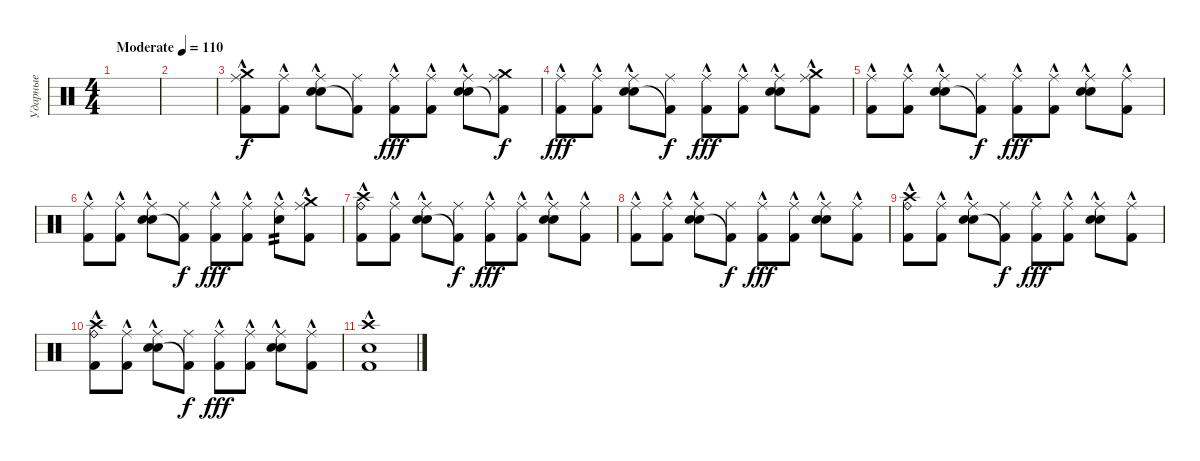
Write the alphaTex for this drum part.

\track ("Ударные" "Ударные") {instrument percussion}
\staff {score}
\articulation defaults
\ts (4 4)
\tempo (110 "Moderate")
\clef neutral
\ks c
|
|
("Kick (hit) 2"{hac} "Crash medium (hit)" "Ride (middle)").8 ("Kick (hit) 2"{hac} "Ride (middle)").8 ("Snare (hit) 2"{hac} "Electric Snare (hit)"{hac} "Ride (middle)").8 ("Kick (hit) 2"{t} "Ride (middle)").8{dy f} ("Kick (hit) 2"{hac} "Ride (middle)").8{dy fff} ("Kick (hit) 2"{hac} "Ride (middle)").8 ("Snare (hit) 2"{hac} "Electric Snare (hit)"{hac} "Ride (middle)").8 ("Kick (hit) 2"{t} "Crash medium (hit)" "Ride (middle)").8{dy f} |
("Kick (hit) 2"{hac} "Ride (middle)").8{dy fff} ("Kick (hit) 2"{hac} "Ride (middle)").8 ("Snare (hit) 2"{hac} "Electric Snare (hit)"{hac} "Ride (middle)").8 ("Kick (hit) 2"{t} "Ride (middle)").8{dy f} ("Kick (hit) 2"{hac} "Ride (middle)").8{dy fff} ("Kick (hit) 2"{hac} "Ride (middle)").8 ("Snare (hit) 2"{hac} "Electric Snare (hit)"{hac} "Ride (middle)").8 ("Kick (hit) 2"{hac} "Crash medium (hit)" "Ride (middle)").8 |
("Kick (hit) 2"{hac} "Ride (middle)").8 ("Kick (hit) 2"{hac} "Ride (middle)").8 ("Snare (hit) 2"{hac} "Electric Snare (hit)"{hac} "Ride (middle)").8 ("Kick (hit) 2"{t} "Ride (middle)").8{dy f} ("Kick (hit) 2"{hac} "Ride (middle)").8{dy fff} ("Kick (hit) 2"{hac} "Ride (middle)").8 ("Snare (hit) 2"{hac} "Electric Snare (hit)"{hac} "Ride (middle)").8 ("Kick (hit) 2"{hac} "Ride (middle)").8 |
("Kick (hit) 2"{hac} "Ride (middle)").8 ("Kick (hit) 2"{hac} "Ride (middle)").8 ("Snare (hit) 2"{hac} "Electric Snare (hit)"{hac} "Ride (middle)").8 ("Kick (hit) 2"{t} "Ride (middle)").8{dy f} ("Kick (hit) 2"{hac} "Ride (middle)").8{dy fff} ("Kick (hit) 2"{hac} "Ride (middle)").8 ("Snare (hit) 2"{hac} "Ride (middle)").8{tp 2} ("Kick (hit) 2"{hac} "Crash medium (hit)" "Ride (middle)").8 |
("Kick (hit) 2"{hac} "Crash high (hit)" "Ride (bell)").8 ("Kick (hit) 2"{hac} "Ride (middle)").8 ("Snare (hit) 2"{hac} "Electric Snare (hit)"{hac} "Ride (middle)").8 ("Kick (hit) 2"{t} "Ride (middle)").8{dy f} ("Kick (hit) 2"{hac} "Ride (middle)").8{dy fff} ("Kick (hit) 2"{hac} "Ride (middle)").8 ("Snare (hit) 2"{hac} "Electric Snare (hit)"{hac} "Ride (middle)").8 ("Kick (hit) 2"{hac} "Ride (middle)").8 |
("Kick (hit) 2"{hac} "Ride (middle)").8 ("Kick (hit) 2"{hac} "Ride (middle)").8 ("Snare (hit) 2"{hac} "Electric Snare (hit)"{hac} "Ride (middle)").8 ("Kick (hit) 2"{t} "Ride (middle)").8{dy f} ("Kick (hit) 2"{hac} "Ride (middle)").8{dy fff} ("Kick (hit) 2"{hac} "Ride (middle)").8 ("Snare (hit) 2"{hac} "Electric Snare (hit)"{hac} "Ride (middle)").8 ("Kick (hit) 2"{hac} "Ride (middle)").8 |
("Kick (hit) 2"{hac} "Crash high (hit)" "Ride (bell)").8 ("Kick (hit) 2"{hac} "Ride (middle)").8 ("Snare (hit) 2"{hac} "Electric Snare (hit)"{hac} "Ride (middle)").8 ("Kick (hit) 2"{t} "Ride (middle)").8{dy f} ("Kick (hit) 2"{hac} "Ride (middle)").8{dy fff} ("Kick (hit) 2"{hac} "Ride (middle)").8 ("Snare (hit) 2"{hac} "Electric Snare (hit)"{hac} "Ride (middle)").8 ("Kick (hit) 2"{hac} "Ride (middle)").8 |
("Kick (hit) 2"{hac} "Crash high (hit)" "Ride (bell)").8 ("Kick (hit) 2"{hac} "Ride (middle)").8 ("Snare (hit) 2"{hac} "Electric Snare (hit)"{hac} "Ride (middle)").8 ("Kick (hit) 2"{t} "Ride (middle)").8{dy f} ("Kick (hit) 2"{hac} "Ride (middle)").8{dy fff} ("Kick (hit) 2"{hac} "Ride (middle)").8 ("Snare (hit) 2"{hac} "Electric Snare (hit)"{hac} "Ride (middle)").8 ("Kick (hit) 2"{hac} "Ride (middle)").8 |
("Kick (hit) 2"{hac} "Electric Snare (hit)"{hac} "Crash high (hit)"{hac}).1
